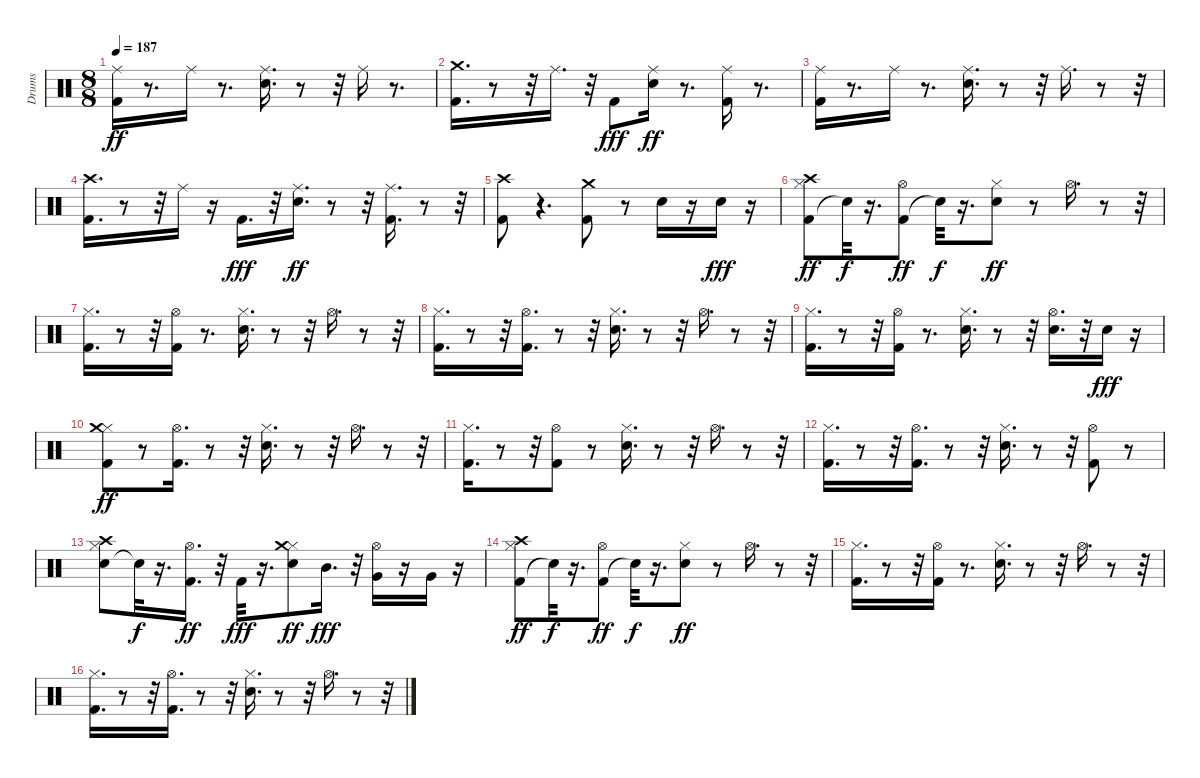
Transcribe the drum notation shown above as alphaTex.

\track ("Drums" "Drums") {instrument percussion}
\staff {score}
\articulation defaults
\ts (8 8)
\tempo 187
\clef neutral
\ks c
("Kick (hit) 2" "Ride (middle)").16{dy ff} r.8{d} "Ride (middle)".16 r.8{d} ("Snare (hit) 2" "Ride (middle)").16{d} r.8 r.32 "Ride (middle)".16 r.8{d} |
("Kick (hit) 2" "Crash medium (hit)").16{d} r.8 r.32 "Ride (middle)".16{d} r.32 "Kick (hit) 2".8{dy fff} ("Snare (hit) 2" "Ride (middle)").16{dy ff} r.8{d} ("Kick (hit) 2" "Ride (middle)").16 r.8{d} |
("Kick (hit) 2" "Ride (middle)").16 r.8{d} "Ride (middle)".16 r.8{d} ("Snare (hit) 2" "Ride (middle)").16{d} r.8 r.32 "Ride (middle)".16{d} r.8 r.32 |
("Kick (hit) 2" "Crash high (hit)").16{d} r.8 r.32 "Ride (middle)".16 r.16 "Kick (hit) 2".16{d dy fff} r.32 ("Snare (hit) 2" "Ride (middle)").16{d dy ff} r.8 r.32 ("Kick (hit) 2" "Ride (middle)").16{d} r.8 r.32 |
("Kick (hit) 2" "Crash high (hit)").8 r.4{d} ("Kick (hit) 2" "Crash medium (hit)").8 r.8 "Snare (hit) 2".16 r.16 "Snare (hit) 2".16{dy fff} r.16 |
("Kick (hit) 2" "Hi-Hat (closed)" "Crash high (hit)").8{dy ff} "Snare (hit)"{t}.32{dy f} r.16{d} ("Kick (hit) 2" "Hi-Hat (open)").8{dy ff} "Snare (hit)"{t}.32{dy f} r.16{d} ("Snare (hit) 2" "Hi-Hat (closed)").8{dy ff} r.8 "Hi-Hat (open)".16{d} r.8 r.32 |
("Kick (hit) 2" "Hi-Hat (closed)").16{d} r.8 r.32 ("Kick (hit) 2" "Hi-Hat (open)").16 r.8{d} ("Snare (hit) 2" "Hi-Hat (closed)").16{d} r.8 r.32 "Hi-Hat (open)".16{d} r.8 r.32 |
("Kick (hit) 2" "Hi-Hat (closed)").16{d} r.8 r.32 ("Kick (hit) 2" "Hi-Hat (open)").16{d} r.8 r.32 ("Snare (hit) 2" "Hi-Hat (closed)").16{d} r.8 r.32 "Hi-Hat (open)".16{d} r.8 r.32 |
("Kick (hit) 2" "Hi-Hat (closed)").16{d} r.8 r.32 ("Kick (hit) 2" "Hi-Hat (open)").16 r.8{d} ("Snare (hit) 2" "Hi-Hat (closed)").16{d} r.8 r.32 ("Snare (hit) 2" "Hi-Hat (open)").16{d} r.32 "Snare (hit) 2".16{dy fff} r.16 |
("Kick (hit) 2" "Hi-Hat (closed)" "Crash medium (hit)").8{dy ff} r.8 ("Kick (hit) 2" "Hi-Hat (open)").16{d} r.8 r.32 ("Snare (hit) 2" "Hi-Hat (closed)").16{d} r.8 r.32 "Hi-Hat (open)".16{d} r.8 r.32 |
("Kick (hit) 2" "Hi-Hat (closed)").16{d} r.8 r.32 ("Kick (hit) 2" "Hi-Hat (open)").8 r.8 ("Snare (hit) 2" "Hi-Hat (closed)").16{d} r.8 r.32 "Hi-Hat (open)".16{d} r.8 r.32 |
("Kick (hit) 2" "Hi-Hat (closed)").16{d} r.8 r.32 ("Kick (hit) 2" "Hi-Hat (open)").16{d} r.8 r.32 ("Snare (hit) 2" "Hi-Hat (closed)").16{d} r.8 r.32 ("Kick (hit) 2" "Hi-Hat (open)").8 r.8 |
("Snare (hit) 2" "Hi-Hat (closed)" "Crash high (hit)").8 "Snare (hit)"{t}.32{dy f} r.16{d} ("Kick (hit) 2" "Hi-Hat (open)").16{d dy ff} r.32 "Kick (hit) 2".32{dy fff} r.16{d} ("Snare (hit) 2" "Hi-Hat (closed)" "Crash medium (hit)").8{dy ff} "Mid Tom (hit)".16{d dy fff} r.32 ("Hi-Hat (open)" "Very Low Tom (hit)").16 r.16 "Very Low Tom (hit)".16 r.16 |
("Kick (hit) 2" "Hi-Hat (closed)" "Crash high (hit)").8{dy ff} "Snare (hit)"{t}.32{dy f} r.16{d} ("Kick (hit) 2" "Hi-Hat (open)").8{dy ff} "Snare (hit)"{t}.32{dy f} r.16{d} ("Snare (hit) 2" "Hi-Hat (closed)").8{dy ff} r.8 "Hi-Hat (open)".16{d} r.8 r.32 |
("Kick (hit) 2" "Hi-Hat (closed)").16{d} r.8 r.32 ("Kick (hit) 2" "Hi-Hat (open)").16 r.8{d} ("Snare (hit) 2" "Hi-Hat (closed)").16{d} r.8 r.32 "Hi-Hat (open)".16{d} r.8 r.32 |
("Kick (hit) 2" "Hi-Hat (closed)").16{d} r.8 r.32 ("Kick (hit) 2" "Hi-Hat (open)").16{d} r.8 r.32 ("Snare (hit) 2" "Hi-Hat (closed)").16{d} r.8 r.32 "Hi-Hat (open)".16{d} r.8 r.32
